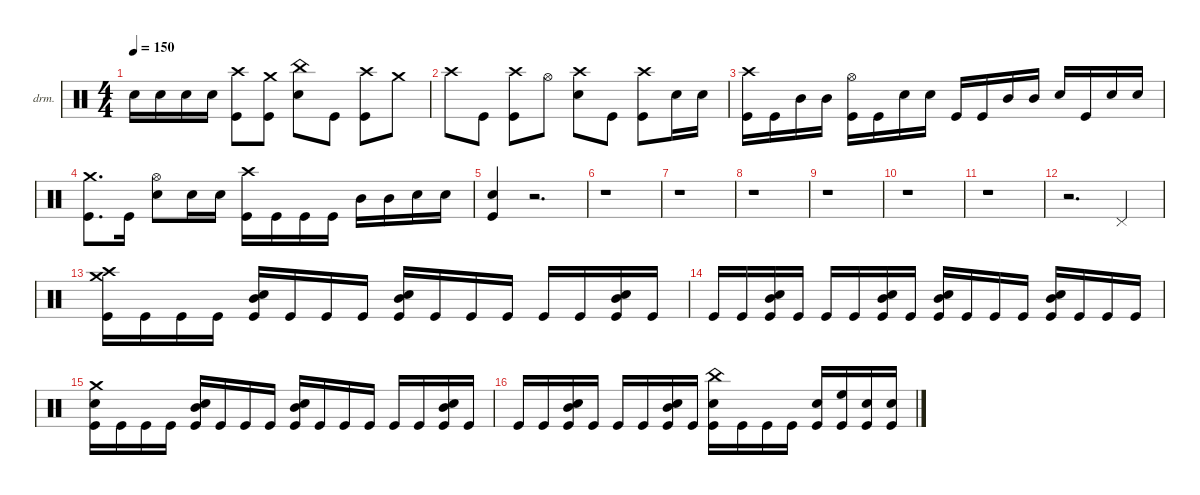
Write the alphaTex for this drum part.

\defaultSystemsLayout 4
\hideDynamics
\bracketExtendMode nobrackets
\firstSystemTrackNameOrientation horizontal
\track ("Drumkit" "drm.") {instrument percussion}
\staff {score}
\articulation defaults
\ts (4 4)
\tempo 150
\clef neutral
\ks c "Snare (hit) 2".16{dy f} "Snare (hit) 2".16{dy fff} "Snare (hit) 2".16{dy ff} "Snare (hit) 2".16{dy fff}
("Kick (hit)" "Crash high (hit)"{acc #}).8 ("Kick (hit)" "Crash medium (hit)").8 ("Snare (hit) 2" "China (hit)").8 "Kick (hit)".8 ("Kick (hit)" "Crash high (hit)"{acc #}).8 "Crash medium (hit)".8{dy ff} |
"Crash high (hit)"{acc #}.8 "Kick (hit)".8{dy fff} ("Kick (hit)" "Crash high (hit)"{acc #}).8 "Hi-Hat (open)"{acc #}.8{dy ff} ("Snare (hit) 2" "Crash high (hit)"{acc #}).8 "Kick (hit)".8{dy fff} ("Kick (hit)" "Crash high (hit)"{acc #}).8 "Snare (hit) 2".16{dy ff} "Snare (hit) 2".16{dy fff} |
("Kick (hit)" "Crash high (hit)"{acc #}).16{dy ff} "Kick (hit)".16 "Mid Tom (hit)".16 "Mid Tom (hit)".16 ("Kick (hit)" "Hi-Hat (open)"{acc #}).16 "Kick (hit)".16{dy fff} "Snare (hit) 2".16{dy ff} "Snare (hit) 2".16{dy fff} "Kick (hit)".16 "Kick (hit)".16 "Mid Tom (hit)".16{dy ff} "Mid Tom (hit)".16 "Snare (hit) 2".16 "Kick (hit)".16{dy fff} "Snare (hit) 2".16{dy ff} "Snare (hit) 2".16{dy fff} |
("Kick (hit)" "Crash medium (hit)").8{d dy ff} "Kick (hit)".16{dy fff} ("Snare (hit) 2" "Hi-Hat (open)"{acc #}).8 "Snare (hit) 2".16{dy ff} "Snare (hit) 2".16{dy fff} ("Kick (hit)" "Crash high (hit)"{acc #}).16 "Kick (hit)".16 "Kick (hit)".16{dy ff} "Kick (hit)".16{dy fff} "Mid Tom (hit)".16{dy ff} "Mid Tom (hit)".16 "Snare (hit) 2".16 "Snare (hit) 2".16{dy fff} |
("Kick (hit)" "Snare (hit) 2").4 r.2{d} |
r.1 |
r.1 |
r.1 |
r.1 |
r.1 |
r.1 |
r.2{d} "Pedal Hi-Hat (hit)"{acc #}.4{dy p} |
("Kick (hit)" "Crash high (hit)"{acc #} "Crash medium (hit)").16{dy fff} "Kick (hit)".16 "Kick (hit)".16 "Kick (hit)".16 ("Kick (hit)" "Snare (hit) 2" "Mid Tom (hit)").16 "Kick (hit)".16 "Kick (hit)".16 "Kick (hit)".16 ("Kick (hit)" "Snare (hit) 2" "Mid Tom (hit)").16 "Kick (hit)".16 "Kick (hit)".16 "Kick (hit)".16 "Kick (hit)".16 "Kick (hit)".16 ("Kick (hit)" "Snare (hit) 2" "Mid Tom (hit)").16 "Kick (hit)".16 |
"Kick (hit)".16 "Kick (hit)".16 ("Kick (hit)" "Snare (hit) 2" "Mid Tom (hit)").16 "Kick (hit)".16 "Kick (hit)".16 "Kick (hit)".16{dy ff} ("Kick (hit)" "Snare (hit) 2" "Mid Tom (hit)").16 "Kick (hit)".16{dy fff} ("Kick (hit)" "Snare (hit) 2" "Mid Tom (hit)").16 "Kick (hit)".16 "Kick (hit)".16 "Kick (hit)".16 ("Kick (hit)" "Snare (hit) 2" "Mid Tom (hit)").16 "Kick (hit)".16 "Kick (hit)".16 "Kick (hit)".16 |
("Kick (hit)" "Snare (hit) 2" "Crash medium (hit)").16 "Kick (hit)".16 "Kick (hit)".16 "Kick (hit)".16 ("Kick (hit)" "Snare (hit) 2" "Mid Tom (hit)").16 "Kick (hit)".16 "Kick (hit)".16 "Kick (hit)".16 ("Kick (hit)" "Snare (hit) 2" "Mid Tom (hit)").16 "Kick (hit)".16 "Kick (hit)".16 "Kick (hit)".16 "Kick (hit)".16 "Kick (hit)".16 ("Kick (hit)" "Snare (hit) 2" "Mid Tom (hit)").16 "Kick (hit)".16 |
"Kick (hit)".16 "Kick (hit)".16 ("Kick (hit)" "Snare (hit) 2" "Mid Tom (hit)").16 "Kick (hit)".16 "Kick (hit)".16 "Kick (hit)".16 ("Kick (hit)" "Snare (hit) 2" "Mid Tom (hit)").16 "Kick (hit)".16 ("Kick (hit)" "Snare (hit) 2" "China (hit)").16 "Kick (hit)".16 "Kick (hit)".16 "Kick (hit)".16 ("Kick (hit)" "Snare (hit) 2").16 ("Kick (hit)" "High Floor Tom (hit)").16 ("Kick (hit)" "Snare (hit) 2").16 ("Kick (hit)" "Snare (hit) 2").16
